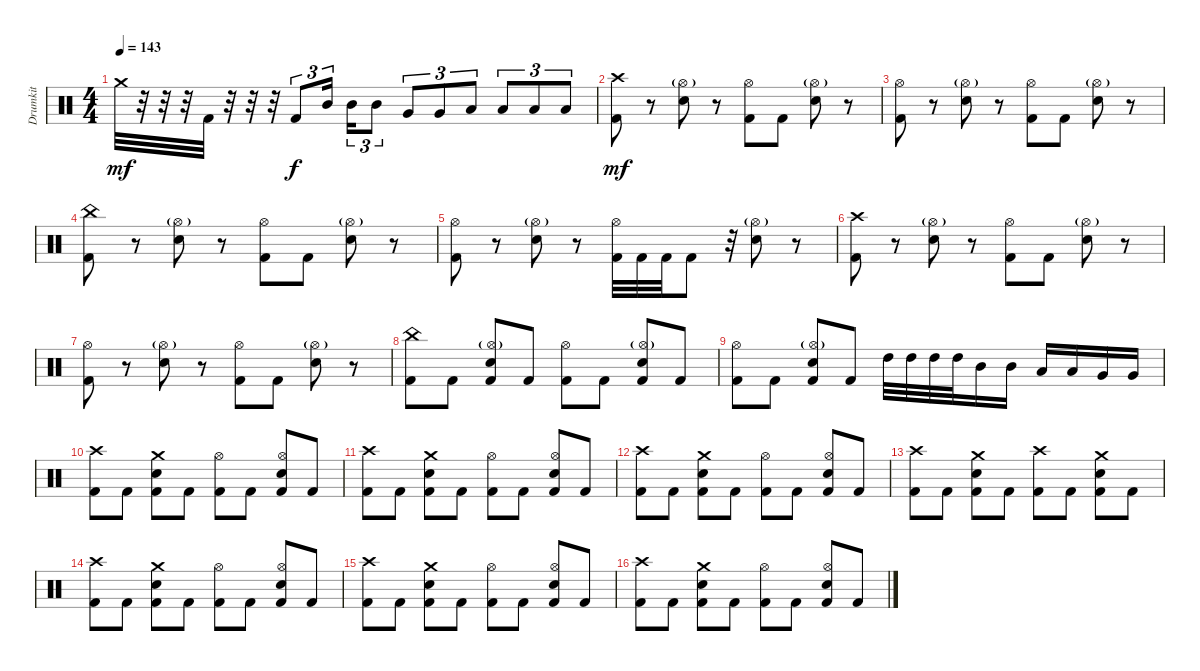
\track ("Drumkit" "Drumkit") {instrument percussion}
\staff {score}
\articulation defaults
\ts (4 4)
\tempo 143
\clef neutral
\ks c "Crash medium (hit)".32{dy mf}
r.32 r.32 r.32 "Kick (hit) 2".32 r.32 r.32 r.32 "Kick (hit) 2".8{tu (3 2) dy f} "Mid Tom (hit)".16{tu (3 2) beam splitsecondary} "Mid Tom (hit)".16{tu (3 2)} "Mid Tom (hit)".8{tu (3 2)} "Very Low Tom (hit)".8{tu (3 2)} "Very Low Tom (hit)".8{tu (3 2)} "Low Tom (hit)".8{tu (3 2)} "Low Tom (hit)".8{tu (3 2)} "Low Floor Tom (hit)".8{tu (3 2)} "Low Floor Tom (hit)".8{tu (3 2)} |
("Crash high (hit)" "Kick (hit) 2").8{dy mf} r.8 ("Hi-Hat (open)"{g} "Snare (hit) 2").8 r.8 ("Hi-Hat (open)" "Kick (hit) 2").8 "Kick (hit) 2".8 ("Hi-Hat (open)"{g} "Snare (hit) 2").8 r.8 |
("Hi-Hat (open)" "Kick (hit) 2").8 r.8 ("Hi-Hat (open)"{g} "Snare (hit) 2").8 r.8 ("Hi-Hat (open)" "Kick (hit) 2").8 "Kick (hit) 2".8 ("Hi-Hat (open)"{g} "Snare (hit) 2").8 r.8 |
("China (hit)" "Kick (hit) 2").8 r.8 ("Hi-Hat (open)"{g} "Snare (hit) 2").8 r.8 ("Hi-Hat (open)" "Kick (hit) 2").8 "Kick (hit) 2".8 ("Hi-Hat (open)"{g} "Snare (hit) 2").8 r.8 |
("Hi-Hat (open)" "Kick (hit) 2").8 r.8 ("Hi-Hat (open)"{g} "Snare (hit) 2").8 r.8 ("Hi-Hat (open)" "Kick (hit) 2").32 "Kick (hit) 2".32 "Kick (hit) 2".32 "Kick (hit) 2".8 r.32 ("Hi-Hat (open)"{g} "Snare (hit) 2").8 r.8 |
("Crash high (hit)" "Kick (hit) 2").8 r.8 ("Hi-Hat (open)"{g} "Snare (hit) 2").8 r.8 ("Hi-Hat (open)" "Kick (hit) 2").8 "Kick (hit) 2".8 ("Hi-Hat (open)"{g} "Snare (hit) 2").8 r.8 |
("Hi-Hat (open)" "Kick (hit) 2").8 r.8 ("Hi-Hat (open)"{g} "Snare (hit) 2").8 r.8 ("Hi-Hat (open)" "Kick (hit) 2").8 "Kick (hit) 2".8 ("Hi-Hat (open)"{g} "Snare (hit) 2").8 r.8 |
("China (hit)" "Kick (hit) 2").8 "Kick (hit) 2".8 ("Hi-Hat (open)"{g} "Kick (hit) 2" "Snare (hit) 2").8 "Kick (hit) 2".8 ("Hi-Hat (open)" "Kick (hit) 2").8 "Kick (hit) 2".8 ("Hi-Hat (open)"{g} "Kick (hit) 2" "Snare (hit) 2").8 "Kick (hit) 2".8 |
("Hi-Hat (open)" "Kick (hit) 2").8 "Kick (hit) 2".8 ("Hi-Hat (open)"{g} "Kick (hit) 2" "Snare (hit) 2").8 "Kick (hit) 2".8 "High Tom (hit)".32 "High Tom (hit)".32 "High Tom (hit)".32 "High Tom (hit)".32 "Mid Tom (hit)".16 "Mid Tom (hit)".16 "Low Tom (hit)".16 "Low Tom (hit)".16 "Very Low Tom (hit)".16 "Very Low Tom (hit)".16 |
("Crash high (hit)" "Kick (hit) 2").8 "Kick (hit) 2".8 ("Crash medium (hit)" "Kick (hit) 2" "Snare (hit) 2").8 "Kick (hit) 2".8 ("Hi-Hat (open)" "Kick (hit) 2").8 "Kick (hit) 2".8 ("Hi-Hat (open)" "Kick (hit) 2" "Snare (hit) 2").8 "Kick (hit) 2".8 |
("Crash high (hit)" "Kick (hit) 2").8 "Kick (hit) 2".8 ("Crash medium (hit)" "Kick (hit) 2" "Snare (hit) 2").8 "Kick (hit) 2".8 ("Hi-Hat (open)" "Kick (hit) 2").8 "Kick (hit) 2".8 ("Hi-Hat (open)" "Kick (hit) 2" "Snare (hit) 2").8 "Kick (hit) 2".8 |
("Crash high (hit)" "Kick (hit) 2").8 "Kick (hit) 2".8 ("Crash medium (hit)" "Kick (hit) 2" "Snare (hit) 2").8 "Kick (hit) 2".8 ("Hi-Hat (open)" "Kick (hit) 2").8 "Kick (hit) 2".8 ("Hi-Hat (open)" "Kick (hit) 2" "Snare (hit) 2").8 "Kick (hit) 2".8 |
("Crash high (hit)" "Kick (hit) 2").8 "Kick (hit) 2".8 ("Crash medium (hit)" "Kick (hit) 2" "Snare (hit) 2").8 "Kick (hit) 2".8 ("Crash high (hit)" "Kick (hit) 2").8 "Kick (hit) 2".8 ("Crash medium (hit)" "Kick (hit) 2" "Snare (hit) 2").8 "Kick (hit) 2".8 |
("Crash high (hit)" "Kick (hit) 2").8 "Kick (hit) 2".8 ("Crash medium (hit)" "Kick (hit) 2" "Snare (hit) 2").8 "Kick (hit) 2".8 ("Hi-Hat (open)" "Kick (hit) 2").8 "Kick (hit) 2".8 ("Hi-Hat (open)" "Kick (hit) 2" "Snare (hit) 2").8 "Kick (hit) 2".8 |
("Crash high (hit)" "Kick (hit) 2").8 "Kick (hit) 2".8 ("Crash medium (hit)" "Kick (hit) 2" "Snare (hit) 2").8 "Kick (hit) 2".8 ("Hi-Hat (open)" "Kick (hit) 2").8 "Kick (hit) 2".8 ("Hi-Hat (open)" "Kick (hit) 2" "Snare (hit) 2").8 "Kick (hit) 2".8 |
("Crash high (hit)" "Kick (hit) 2").8 "Kick (hit) 2".8 ("Crash medium (hit)" "Kick (hit) 2" "Snare (hit) 2").8 "Kick (hit) 2".8 ("Hi-Hat (open)" "Kick (hit) 2").8 "Kick (hit) 2".8 ("Hi-Hat (open)" "Kick (hit) 2" "Snare (hit) 2").8 "Kick (hit) 2".8
